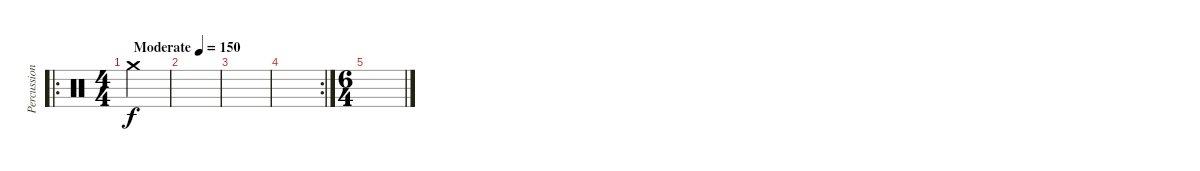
\track ("Percussion" "Percussion") {instrument percussion}
\staff {score}
\articulation defaults
\ro
\ts (4 4)
\tempo (150 "Moderate")
\clef neutral
\ks c "Crash medium (hit)".4{dy f}
|
|
|
\rc 2
|
\ts (6 4)
